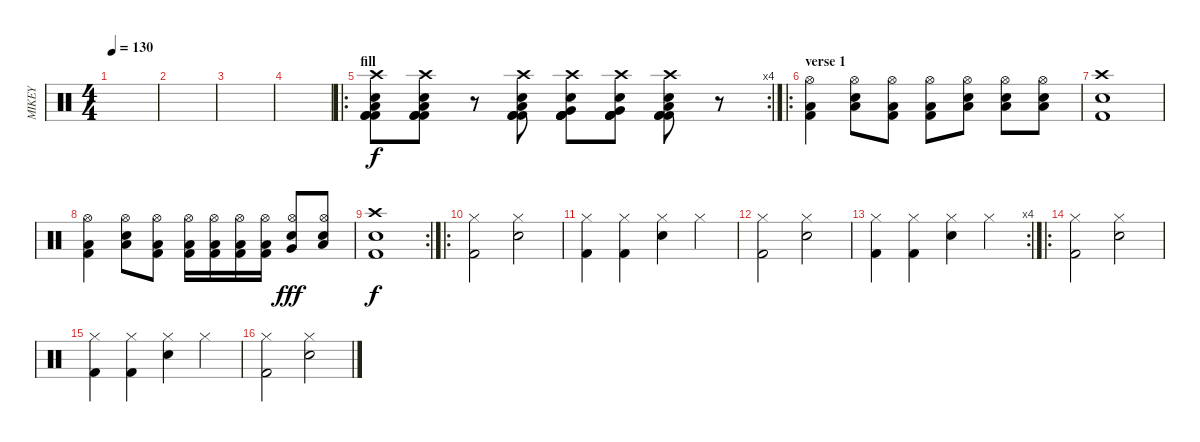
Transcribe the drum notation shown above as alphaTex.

\track ("MIKEY" "MIKEY") {instrument percussion}
\staff {score}
\articulation defaults
\ts (4 4)
\tempo 130
\clef neutral
\ks c
|
|
|
|
\ro
\rc 4
\section ("" "fill")
("Crash high (hit)" "Kick (hit) 2" "Low Tom (hit)" "Snare (hit) 2" "Kick (hit) 2" "Kick (hit) 2").8 ("Crash high (hit)" "Kick (hit) 2" "Low Tom (hit)" "Snare (hit) 2" "Kick (hit) 2" "Kick (hit) 2").8 r.8 ("Crash high (hit)" "Kick (hit) 2" "Low Tom (hit)" "Snare (hit) 2" "Kick (hit) 2" "Kick (hit) 2").8 ("Crash high (hit)" "Kick (hit) 2" "Very Low Tom (hit)" "Snare (hit) 2" "Kick (hit) 2" "Kick (hit) 2").8 ("Crash high (hit)" "Kick (hit) 2" "Very Low Tom (hit)" "Snare (hit) 2" "Kick (hit) 2" "Kick (hit) 2").8 ("Crash high (hit)" "Kick (hit) 2" "Low Floor Tom (hit)" "Snare (hit) 2" "Kick (hit) 2" "Kick (hit) 2").8 r.8 |
\ro
\section ("" "verse 1")
("Hi-Hat (open)" "Low Floor Tom (hit)" "Kick (hit) 2").4{dy f} ("Hi-Hat (open)" "Low Floor Tom (hit)" "Electric Snare (hit)").8 ("Hi-Hat (open)" "Low Floor Tom (hit)" "Kick (hit) 2").8 ("Hi-Hat (open)" "Low Floor Tom (hit)" "Kick (hit) 2").8 ("Hi-Hat (open)" "Low Floor Tom (hit)" "Electric Snare (hit)").8 ("Hi-Hat (open)" "Low Floor Tom (hit)" "Electric Snare (hit)").8 ("Hi-Hat (open)" "Low Floor Tom (hit)" "Electric Snare (hit)").8 |
("Kick (hit) 2" "Crash high (hit)" "Electric Snare (hit)").1 |
("Hi-Hat (open)" "Low Floor Tom (hit)" "Kick (hit) 2").4 ("Hi-Hat (open)" "Low Floor Tom (hit)" "Electric Snare (hit)").8 ("Hi-Hat (open)" "Low Floor Tom (hit)" "Kick (hit) 2").8 ("Hi-Hat (open)" "Low Floor Tom (hit)" "Kick (hit) 2").16 ("Hi-Hat (open)" "Low Floor Tom (hit)" "Kick (hit) 2").16 ("Hi-Hat (open)" "Low Floor Tom (hit)" "Kick (hit) 2").16 ("Hi-Hat (open)" "Low Floor Tom (hit)" "Kick (hit) 2").16 ("Hi-Hat (open)" "Very Low Tom (hit)" "Electric Snare (hit)").8{dy fff} ("Hi-Hat (open)" "Low Tom (hit)" "Electric Snare (hit)").8 |
\rc 2
("Kick (hit) 2" "Crash high (hit)" "Electric Snare (hit)").1{dy f} |
\ro
("Hi-Hat (closed)" "Kick (hit) 2").2 ("Hi-Hat (closed)" "Electric Snare (hit)").2 |
("Hi-Hat (closed)" "Kick (hit) 2").4 ("Hi-Hat (closed)" "Kick (hit) 2").4 ("Hi-Hat (closed)" "Electric Snare (hit)").4 "Hi-Hat (closed)".4 |
("Hi-Hat (closed)" "Kick (hit) 2").2 ("Hi-Hat (closed)" "Electric Snare (hit)").2 |
\rc 4
("Hi-Hat (closed)" "Kick (hit) 2").4 ("Hi-Hat (closed)" "Kick (hit) 2").4 ("Hi-Hat (closed)" "Electric Snare (hit)").4 "Hi-Hat (closed)".4 |
\ro
("Hi-Hat (closed)" "Kick (hit) 2").2 ("Hi-Hat (closed)" "Electric Snare (hit)").2 |
("Hi-Hat (closed)" "Kick (hit) 2").4 ("Hi-Hat (closed)" "Kick (hit) 2").4 ("Hi-Hat (closed)" "Electric Snare (hit)").4 "Hi-Hat (closed)".4 |
("Hi-Hat (closed)" "Kick (hit) 2").2 ("Hi-Hat (closed)" "Electric Snare (hit)").2
